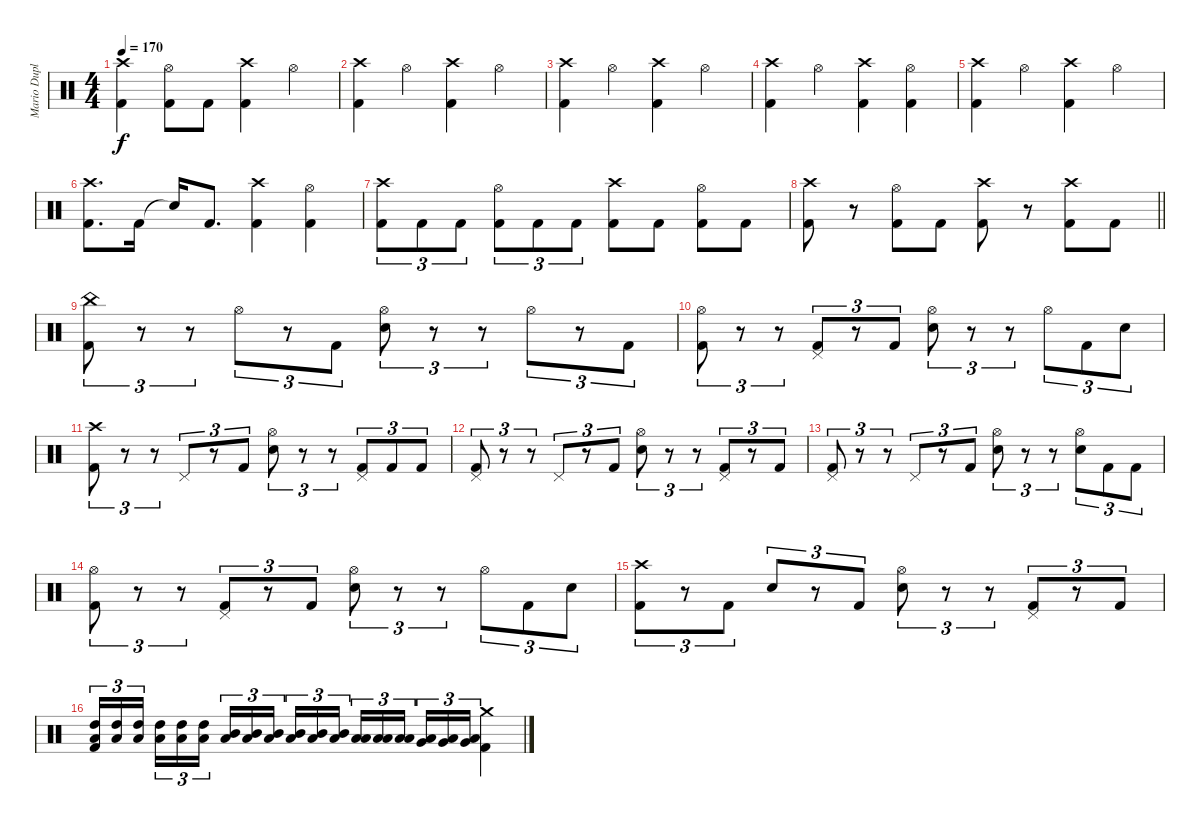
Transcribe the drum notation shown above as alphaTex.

\track ("Mario Duplantier" "Mario Dupl") {instrument percussion}
\staff {score}
\articulation defaults
\ts (4 4)
\tempo 170
\clef neutral
\ks c
("Crash high (hit)" "Kick (hit) 2").4{dy f} ("Hi-Hat (open)" "Kick (hit) 2").8 "Kick (hit) 2".8 ("Crash high (hit)" "Kick (hit) 2").4 "Hi-Hat (open)".4 |
("Crash high (hit)" "Kick (hit) 2").4 "Hi-Hat (open)".4 ("Crash high (hit)" "Kick (hit) 2").4 "Hi-Hat (open)".4 |
("Crash high (hit)" "Kick (hit) 2").4 "Hi-Hat (open)".4 ("Crash high (hit)" "Kick (hit) 2").4 "Hi-Hat (open)".4 |
("Crash high (hit)" "Kick (hit) 2").4 "Hi-Hat (open)".4 ("Crash high (hit)" "Kick (hit) 2").4 ("Hi-Hat (open)" "Kick (hit) 2").4 |
("Crash high (hit)" "Kick (hit) 2").4 "Hi-Hat (open)".4 ("Crash high (hit)" "Kick (hit) 2").4 "Hi-Hat (open)".4 |
("Crash high (hit)" "Kick (hit) 2").8{d} "Kick (hit) 2".16 "Snare (hit)"{t}.16 "Kick (hit) 2".8{d} ("Crash high (hit)" "Kick (hit) 2").4 ("Hi-Hat (open)" "Kick (hit) 2").4 |
("Crash high (hit)" "Kick (hit) 2").8{tu (3 2)} "Kick (hit) 2".8{tu (3 2)} "Kick (hit) 2".8{tu (3 2)} ("Hi-Hat (open)" "Kick (hit) 2").8{tu (3 2)} "Kick (hit) 2".8{tu (3 2)} "Kick (hit) 2".8{tu (3 2)} ("Crash high (hit)" "Kick (hit) 2").8 "Kick (hit) 2".8 ("Hi-Hat (open)" "Kick (hit) 2").8 "Kick (hit) 2".8 |
\barLineRight lightlight
("Crash high (hit)" "Kick (hit) 2").8 r.8 ("Hi-Hat (open)" "Kick (hit) 2").8 "Kick (hit) 2".8 ("Crash high (hit)" "Kick (hit) 2").8 r.8 ("Crash high (hit)" "Kick (hit) 2").8 "Kick (hit) 2".8 |
("China (hit)" "Kick (hit) 2").8{tu (3 2)} r.8{tu (3 2)} r.8{tu (3 2)} "Hi-Hat (open)".8{tu (3 2)} r.8{tu (3 2)} "Kick (hit) 2".8{tu (3 2)} ("Hi-Hat (open)" "Electric Snare (hit)").8{tu (3 2)} r.8{tu (3 2)} r.8{tu (3 2)} "Hi-Hat (open)".8{tu (3 2)} r.8{tu (3 2)} "Kick (hit) 2".8{tu (3 2)} |
("Hi-Hat (open)" "Kick (hit) 2").8{tu (3 2)} r.8{tu (3 2)} r.8{tu (3 2)} ("Pedal Hi-Hat (hit)" "Kick (hit) 2").8{tu (3 2)} r.8{tu (3 2)} "Kick (hit) 2".8{tu (3 2)} ("Hi-Hat (open)" "Electric Snare (hit)").8{tu (3 2)} r.8{tu (3 2)} r.8{tu (3 2)} "Hi-Hat (open)".8{tu (3 2)} "Kick (hit) 2".8{tu (3 2)} "Electric Snare (hit)".8{tu (3 2)} |
("Crash high (hit)" "Kick (hit) 2").8{tu (3 2)} r.8{tu (3 2)} r.8{tu (3 2)} "Pedal Hi-Hat (hit)".8{tu (3 2)} r.8{tu (3 2)} "Kick (hit) 2".8{tu (3 2)} ("Hi-Hat (open)" "Electric Snare (hit)").8{tu (3 2)} r.8{tu (3 2)} r.8{tu (3 2)} ("Pedal Hi-Hat (hit)" "Kick (hit) 2").8{tu (3 2)} "Kick (hit) 2".8{tu (3 2)} "Kick (hit) 2".8{tu (3 2)} |
("Pedal Hi-Hat (hit)" "Kick (hit) 2").8{tu (3 2)} r.8{tu (3 2)} r.8{tu (3 2)} "Pedal Hi-Hat (hit)".8{tu (3 2)} r.8{tu (3 2)} "Kick (hit) 2".8{tu (3 2)} ("Hi-Hat (open)" "Electric Snare (hit)").8{tu (3 2)} r.8{tu (3 2)} r.8{tu (3 2)} ("Pedal Hi-Hat (hit)" "Kick (hit) 2").8{tu (3 2)} r.8{tu (3 2)} "Kick (hit) 2".8{tu (3 2)} |
("Pedal Hi-Hat (hit)" "Kick (hit) 2").8{tu (3 2)} r.8{tu (3 2)} r.8{tu (3 2)} "Pedal Hi-Hat (hit)".8{tu (3 2)} r.8{tu (3 2)} "Kick (hit) 2".8{tu (3 2)} ("Hi-Hat (open)" "Electric Snare (hit)").8{tu (3 2)} r.8{tu (3 2)} r.8{tu (3 2)} ("Hi-Hat (open)" "Electric Snare (hit)").8{tu (3 2)} "Kick (hit) 2".8{tu (3 2)} "Kick (hit) 2".8{tu (3 2)} |
("Hi-Hat (open)" "Kick (hit) 2").8{tu (3 2)} r.8{tu (3 2)} r.8{tu (3 2)} ("Pedal Hi-Hat (hit)" "Kick (hit) 2").8{tu (3 2)} r.8{tu (3 2)} "Kick (hit) 2".8{tu (3 2)} ("Hi-Hat (open)" "Electric Snare (hit)").8{tu (3 2)} r.8{tu (3 2)} r.8{tu (3 2)} "Hi-Hat (open)".8{tu (3 2)} "Kick (hit) 2".8{tu (3 2)} "Electric Snare (hit)".8{tu (3 2)} |
("Crash high (hit)" "Kick (hit) 2").8{tu (3 2)} r.8{tu (3 2)} "Kick (hit) 2".8{tu (3 2)} "Electric Snare (hit)".8{tu (3 2)} r.8{tu (3 2)} "Kick (hit) 2".8{tu (3 2)} ("Hi-Hat (open)" "Electric Snare (hit)").8{tu (3 2)} r.8{tu (3 2)} r.8{tu (3 2)} ("Pedal Hi-Hat (hit)" "Kick (hit) 2").8{tu (3 2)} r.8{tu (3 2)} "Kick (hit) 2".8{tu (3 2)} |
("High Tom (hit)" "Low Floor Tom (hit)" "Kick (hit) 2").16{tu (3 2)} ("High Tom (hit)" "Low Floor Tom (hit)").16{tu (3 2)} ("High Tom (hit)" "Low Floor Tom (hit)").16{tu (3 2) beam splitsecondary} ("High Tom (hit)" "Low Floor Tom (hit)").16{tu (3 2)} ("High Tom (hit)" "Low Floor Tom (hit)").16{tu (3 2)} ("High Tom (hit)" "Low Floor Tom (hit)").16{tu (3 2)} ("Mid Tom (hit)" "Low Floor Tom (hit)").16{tu (3 2)} ("Mid Tom (hit)" "Low Floor Tom (hit)").16{tu (3 2)} ("Mid Tom (hit)" "Low Floor Tom (hit)").16{tu (3 2) beam splitsecondary} ("Mid Tom (hit)" "Low Floor Tom (hit)").16{tu (3 2)} ("Mid Tom (hit)" "Low Floor Tom (hit)").16{tu (3 2)} ("Mid Tom (hit)" "Low Floor Tom (hit)").16{tu (3 2)} ("Low Tom (hit)" "Low Floor Tom (hit)").16{tu (3 2)} ("Low Tom (hit)" "Low Floor Tom (hit)").16{tu (3 2)} ("Low Tom (hit)" "Low Floor Tom (hit)").16{tu (3 2) beam splitsecondary} ("Very Low Tom (hit)" "Low Floor Tom (hit)").16{tu (3 2)} ("Very Low Tom (hit)" "Low Floor Tom (hit)").16{tu (3 2)} ("Very Low Tom (hit)" "Low Floor Tom (hit)").16{tu (3 2)} ("Crash medium (hit)" "Kick (hit) 2").4
